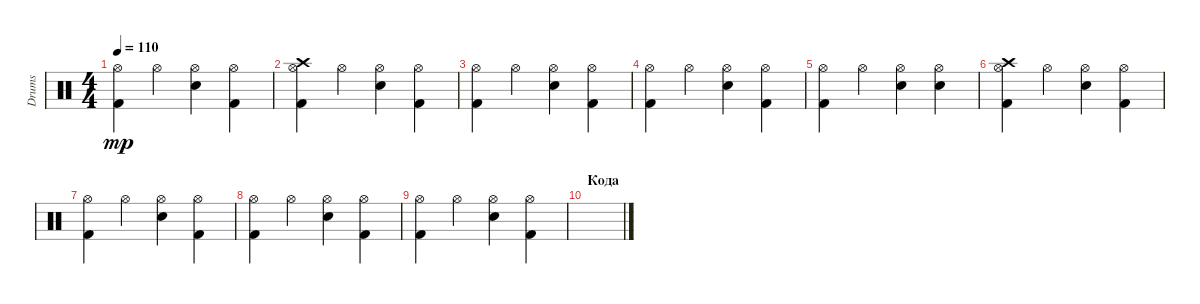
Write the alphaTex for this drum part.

\track ("Drums" "Drums") {instrument percussion}
\staff {score}
\articulation defaults
\ts (4 4)
\tempo 110
\clef neutral
\ks c
("Kick (hit) 2" "Hi-Hat (open)").4{dy mp} "Hi-Hat (open)".4 ("Snare (hit) 2" "Hi-Hat (open)").4 ("Kick (hit) 2" "Hi-Hat (open)").4 |
("Crash high (hit)" "Kick (hit) 2" "Hi-Hat (open)").4 "Hi-Hat (open)".4 ("Snare (hit) 2" "Hi-Hat (open)").4 ("Kick (hit) 2" "Hi-Hat (open)").4 |
("Kick (hit) 2" "Hi-Hat (open)").4 "Hi-Hat (open)".4 ("Snare (hit) 2" "Hi-Hat (open)").4 ("Kick (hit) 2" "Hi-Hat (open)").4 |
("Kick (hit) 2" "Hi-Hat (open)").4 "Hi-Hat (open)".4 ("Snare (hit) 2" "Hi-Hat (open)").4 ("Kick (hit) 2" "Hi-Hat (open)").4 |
("Kick (hit) 2" "Hi-Hat (open)").4 "Hi-Hat (open)".4 ("Snare (hit) 2" "Hi-Hat (open)").4 ("Snare (hit) 2" "Hi-Hat (open)").4 |
("Crash high (hit)" "Kick (hit) 2" "Hi-Hat (open)").4 "Hi-Hat (open)".4 ("Snare (hit) 2" "Hi-Hat (open)").4 ("Kick (hit) 2" "Hi-Hat (open)").4 |
("Kick (hit) 2" "Hi-Hat (open)").4 "Hi-Hat (open)".4 ("Snare (hit) 2" "Hi-Hat (open)").4 ("Kick (hit) 2" "Hi-Hat (open)").4 |
("Kick (hit) 2" "Hi-Hat (open)").4 "Hi-Hat (open)".4 ("Snare (hit) 2" "Hi-Hat (open)").4 ("Kick (hit) 2" "Hi-Hat (open)").4 |
("Kick (hit) 2" "Hi-Hat (open)").4 "Hi-Hat (open)".4 ("Snare (hit) 2" "Hi-Hat (open)").4 ("Kick (hit) 2" "Hi-Hat (open)").4 |
\section ("" "Кода")
